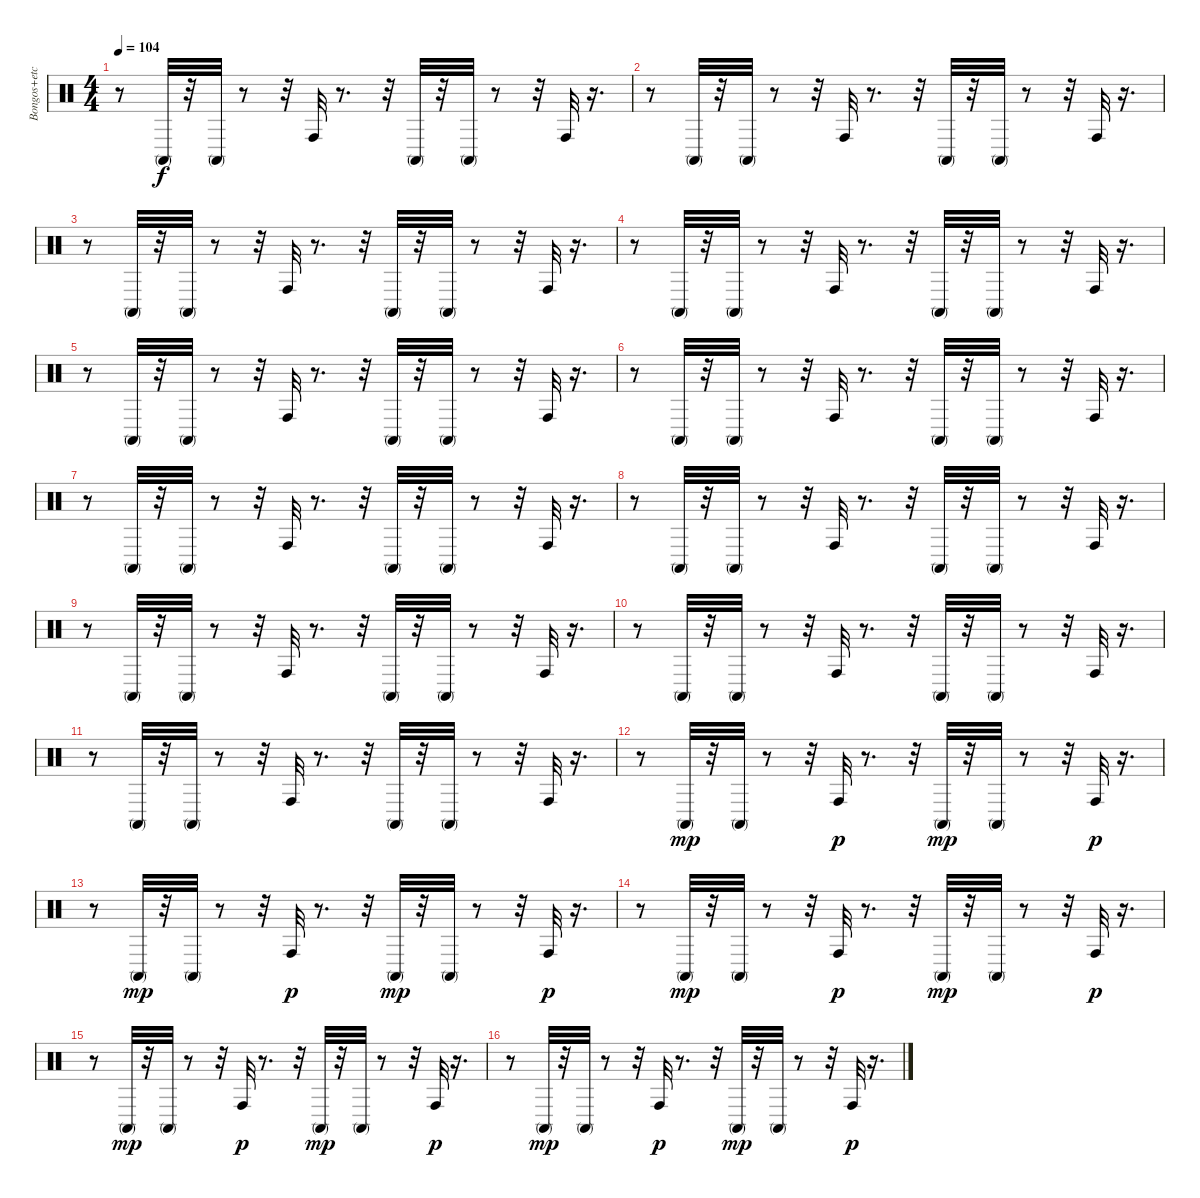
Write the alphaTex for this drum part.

\track ("Bongos+etc" "Bongos+etc") {instrument percussion}
\staff {score}
\articulation defaults
\ts (4 4)
\tempo 104
\clef neutral
\ks c
r.8{dy f} "Conga high (mute)".32 r.32 "Conga high (mute)".32 r.8 r.32 "Conga high (hit)".32 r.8{d} r.32 "Conga high (mute)".32 r.32 "Conga high (mute)".32 r.8 r.32 "Conga high (hit)".32 r.16{d} |
r.8 "Conga high (mute)".32 r.32 "Conga high (mute)".32 r.8 r.32 "Conga high (hit)".32 r.8{d} r.32 "Conga high (mute)".32 r.32 "Conga high (mute)".32 r.8 r.32 "Conga high (hit)".32 r.16{d} |
r.8 "Conga high (mute)".32 r.32 "Conga high (mute)".32 r.8 r.32 "Conga high (hit)".32 r.8{d} r.32 "Conga high (mute)".32 r.32 "Conga high (mute)".32 r.8 r.32 "Conga high (hit)".32 r.16{d} |
r.8 "Conga high (mute)".32 r.32 "Conga high (mute)".32 r.8 r.32 "Conga high (hit)".32 r.8{d} r.32 "Conga high (mute)".32 r.32 "Conga high (mute)".32 r.8 r.32 "Conga high (hit)".32 r.16{d} |
r.8 "Conga high (mute)".32 r.32 "Conga high (mute)".32 r.8 r.32 "Conga high (hit)".32 r.8{d} r.32 "Conga high (mute)".32 r.32 "Conga high (mute)".32 r.8 r.32 "Conga high (hit)".32 r.16{d} |
r.8 "Conga high (mute)".32 r.32 "Conga high (mute)".32 r.8 r.32 "Conga high (hit)".32 r.8{d} r.32 "Conga high (mute)".32 r.32 "Conga high (mute)".32 r.8 r.32 "Conga high (hit)".32 r.16{d} |
r.8 "Conga high (mute)".32 r.32 "Conga high (mute)".32 r.8 r.32 "Conga high (hit)".32 r.8{d} r.32 "Conga high (mute)".32 r.32 "Conga high (mute)".32 r.8 r.32 "Conga high (hit)".32 r.16{d} |
r.8 "Conga high (mute)".32 r.32 "Conga high (mute)".32 r.8 r.32 "Conga high (hit)".32 r.8{d} r.32 "Conga high (mute)".32 r.32 "Conga high (mute)".32 r.8 r.32 "Conga high (hit)".32 r.16{d} |
r.8 "Conga high (mute)".32 r.32 "Conga high (mute)".32 r.8 r.32 "Conga high (hit)".32 r.8{d} r.32 "Conga high (mute)".32 r.32 "Conga high (mute)".32 r.8 r.32 "Conga high (hit)".32 r.16{d} |
r.8 "Conga high (mute)".32 r.32 "Conga high (mute)".32 r.8 r.32 "Conga high (hit)".32 r.8{d} r.32 "Conga high (mute)".32 r.32 "Conga high (mute)".32 r.8 r.32 "Conga high (hit)".32 r.16{d} |
r.8 "Conga high (mute)".32 r.32 "Conga high (mute)".32 r.8 r.32 "Conga high (hit)".32 r.8{d} r.32 "Conga high (mute)".32 r.32 "Conga high (mute)".32 r.8 r.32 "Conga high (hit)".32 r.16{d} |
r.8 "Conga high (mute)".32{dy mp} r.32 "Conga high (mute)".32 r.8 r.32 "Conga high (hit)".32{dy p} r.8{d} r.32 "Conga high (mute)".32{dy mp} r.32 "Conga high (mute)".32 r.8 r.32 "Conga high (hit)".32{dy p} r.16{d} |
r.8 "Conga high (mute)".32{dy mp} r.32 "Conga high (mute)".32 r.8 r.32 "Conga high (hit)".32{dy p} r.8{d} r.32 "Conga high (mute)".32{dy mp} r.32 "Conga high (mute)".32 r.8 r.32 "Conga high (hit)".32{dy p} r.16{d} |
r.8 "Conga high (mute)".32{dy mp} r.32 "Conga high (mute)".32 r.8 r.32 "Conga high (hit)".32{dy p} r.8{d} r.32 "Conga high (mute)".32{dy mp} r.32 "Conga high (mute)".32 r.8 r.32 "Conga high (hit)".32{dy p} r.16{d} |
r.8 "Conga high (mute)".32{dy mp} r.32 "Conga high (mute)".32 r.8 r.32 "Conga high (hit)".32{dy p} r.8{d} r.32 "Conga high (mute)".32{dy mp} r.32 "Conga high (mute)".32 r.8 r.32 "Conga high (hit)".32{dy p} r.16{d} |
r.8 "Conga high (mute)".32{dy mp} r.32 "Conga high (mute)".32 r.8 r.32 "Conga high (hit)".32{dy p} r.8{d} r.32 "Conga high (mute)".32{dy mp} r.32 "Conga high (mute)".32 r.8 r.32 "Conga high (hit)".32{dy p} r.16{d}
